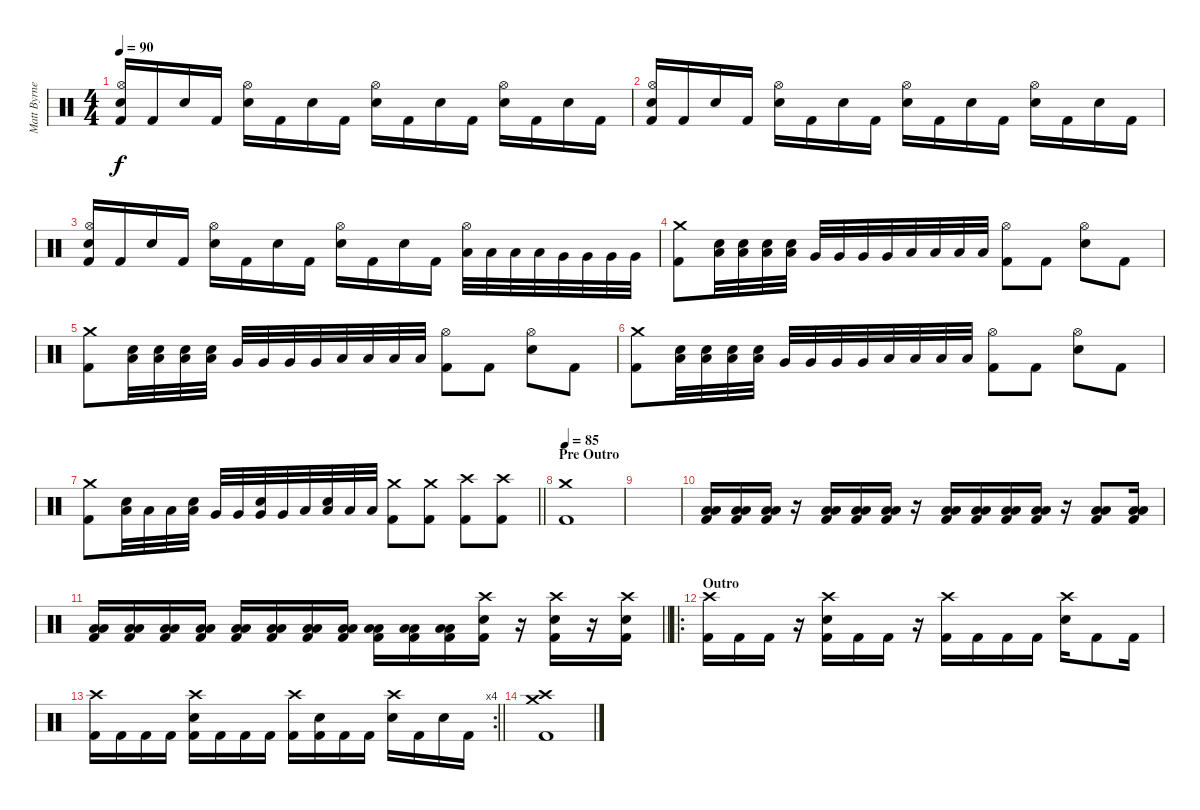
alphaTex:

\track ("Matt Byrne" "Matt Byrne") {instrument percussion}
\staff {score}
\articulation defaults
\ts (4 4)
\tempo 90
\clef neutral
\ks c
("Snare (hit) 2" "Hi-Hat (open)" "Kick (hit) 2").16{dy f} "Kick (hit) 2".16 "Snare (hit) 2".16 "Kick (hit) 2".16 ("Hi-Hat (open)" "Snare (hit) 2").16 "Kick (hit) 2".16 "Snare (hit) 2".16 "Kick (hit) 2".16 ("Hi-Hat (open)" "Snare (hit) 2").16 "Kick (hit) 2".16 "Snare (hit) 2".16 "Kick (hit) 2".16 ("Hi-Hat (open)" "Snare (hit) 2").16 "Kick (hit) 2".16 "Snare (hit) 2".16 "Kick (hit) 2".16 |
("Snare (hit) 2" "Hi-Hat (open)" "Kick (hit) 2").16 "Kick (hit) 2".16 "Snare (hit) 2".16 "Kick (hit) 2".16 ("Hi-Hat (open)" "Snare (hit) 2").16 "Kick (hit) 2".16 "Snare (hit) 2".16 "Kick (hit) 2".16 ("Hi-Hat (open)" "Snare (hit) 2").16 "Kick (hit) 2".16 "Snare (hit) 2".16 "Kick (hit) 2".16 ("Hi-Hat (open)" "Snare (hit) 2").16 "Kick (hit) 2".16 "Snare (hit) 2".16 "Kick (hit) 2".16 |
("Snare (hit) 2" "Hi-Hat (open)" "Kick (hit) 2").16 "Kick (hit) 2".16 "Snare (hit) 2".16 "Kick (hit) 2".16 ("Hi-Hat (open)" "Snare (hit) 2").16 "Kick (hit) 2".16 "Snare (hit) 2".16 "Kick (hit) 2".16 ("Hi-Hat (open)" "Snare (hit) 2").16 "Kick (hit) 2".16 "Snare (hit) 2".16 "Kick (hit) 2".16 ("Hi-Hat (open)" "Low Tom (hit)").32 "Low Tom (hit)".32 "Low Tom (hit)".32 "Low Tom (hit)".32 "Very Low Tom (hit)".32 "Very Low Tom (hit)".32 "Very Low Tom (hit)".32 "Very Low Tom (hit)".32 |
("Crash medium (hit)" "Kick (hit) 2").8 ("Snare (hit) 2" "Low Tom (hit)").32 ("Snare (hit) 2" "Low Tom (hit)").32 ("Snare (hit) 2" "Low Tom (hit)").32 ("Snare (hit) 2" "Low Tom (hit)").32 "Very Low Tom (hit)".32 "Very Low Tom (hit)".32 "Very Low Tom (hit)".32 "Very Low Tom (hit)".32 "Low Floor Tom (hit)".32 "Low Floor Tom (hit)".32 "Low Floor Tom (hit)".32 "Low Floor Tom (hit)".32 ("Hi-Hat (open)" "Kick (hit) 2").8 "Kick (hit) 2".8 ("Hi-Hat (open)" "Snare (hit) 2").8 "Kick (hit) 2".8 |
("Crash medium (hit)" "Kick (hit) 2").8 ("Snare (hit) 2" "Low Tom (hit)").32 ("Snare (hit) 2" "Low Tom (hit)").32 ("Snare (hit) 2" "Low Tom (hit)").32 ("Snare (hit) 2" "Low Tom (hit)").32 "Very Low Tom (hit)".32 "Very Low Tom (hit)".32 "Very Low Tom (hit)".32 "Very Low Tom (hit)".32 "Low Floor Tom (hit)".32 "Low Floor Tom (hit)".32 "Low Floor Tom (hit)".32 "Low Floor Tom (hit)".32 ("Hi-Hat (open)" "Kick (hit) 2").8 "Kick (hit) 2".8 ("Hi-Hat (open)" "Snare (hit) 2").8 "Kick (hit) 2".8 |
("Crash medium (hit)" "Kick (hit) 2").8 ("Snare (hit) 2" "Low Tom (hit)").32 ("Snare (hit) 2" "Low Tom (hit)").32 ("Snare (hit) 2" "Low Tom (hit)").32 ("Snare (hit) 2" "Low Tom (hit)").32 "Very Low Tom (hit)".32 "Very Low Tom (hit)".32 "Very Low Tom (hit)".32 "Very Low Tom (hit)".32 "Low Floor Tom (hit)".32 "Low Floor Tom (hit)".32 "Low Floor Tom (hit)".32 "Low Floor Tom (hit)".32 ("Hi-Hat (open)" "Kick (hit) 2").8 "Kick (hit) 2".8 ("Hi-Hat (open)" "Snare (hit) 2").8 "Kick (hit) 2".8 |
\barLineRight lightlight
("Crash medium (hit)" "Kick (hit) 2").8 ("Snare (hit) 2" "Low Tom (hit)").32 "Low Tom (hit)".32 "Low Tom (hit)".32 ("Snare (hit) 2" "Low Tom (hit)").32 "Very Low Tom (hit)".32 "Very Low Tom (hit)".32 ("Snare (hit) 2" "Very Low Tom (hit)").32 "Very Low Tom (hit)".32 "Low Floor Tom (hit)".32 ("Snare (hit) 2" "Low Floor Tom (hit)").32 "Low Floor Tom (hit)".32 "Low Floor Tom (hit)".32 ("Crash medium (hit)" "Kick (hit) 2").8 ("Crash medium (hit)" "Kick (hit) 2").8 ("Crash high (hit)" "Kick (hit) 2").8 ("Crash high (hit)" "Kick (hit) 2").8 |
\section ("" "Pre Outro")
\tempo 85
("Crash medium (hit)" "Kick (hit) 2").1 |
|
("Low Tom (hit)" "Low Floor Tom (hit)" "Kick (hit) 2").16 ("Low Tom (hit)" "Low Floor Tom (hit)" "Kick (hit) 2").16 ("Low Tom (hit)" "Low Floor Tom (hit)" "Kick (hit) 2").16 r.16 ("Low Tom (hit)" "Low Floor Tom (hit)" "Kick (hit) 2").16 ("Low Tom (hit)" "Low Floor Tom (hit)" "Kick (hit) 2").16 ("Low Tom (hit)" "Low Floor Tom (hit)" "Kick (hit) 2").16 r.16 ("Low Tom (hit)" "Low Floor Tom (hit)" "Kick (hit) 2").16 ("Low Tom (hit)" "Low Floor Tom (hit)" "Kick (hit) 2").16 ("Low Tom (hit)" "Low Floor Tom (hit)" "Kick (hit) 2").16 ("Low Tom (hit)" "Low Floor Tom (hit)" "Kick (hit) 2").16 r.16 ("Low Tom (hit)" "Low Floor Tom (hit)" "Kick (hit) 2").8 ("Low Tom (hit)" "Low Floor Tom (hit)" "Kick (hit) 2").16 |
\barLineRight lightlight
("Low Floor Tom (hit)" "Low Tom (hit)" "Kick (hit) 2").16 ("Low Floor Tom (hit)" "Low Tom (hit)" "Kick (hit) 2").16 ("Low Floor Tom (hit)" "Low Tom (hit)" "Kick (hit) 2").16 ("Low Floor Tom (hit)" "Low Tom (hit)" "Kick (hit) 2").16 ("Low Floor Tom (hit)" "Low Tom (hit)" "Kick (hit) 2").16 ("Low Floor Tom (hit)" "Low Tom (hit)" "Kick (hit) 2").16 ("Low Floor Tom (hit)" "Low Tom (hit)" "Kick (hit) 2").16 ("Low Floor Tom (hit)" "Low Tom (hit)" "Kick (hit) 2").16 ("Low Floor Tom (hit)" "Low Tom (hit)" "Kick (hit) 2").16 ("Low Floor Tom (hit)" "Low Tom (hit)" "Kick (hit) 2").16 ("Low Floor Tom (hit)" "Low Tom (hit)" "Kick (hit) 2").16 ("Crash high (hit)" "Snare (hit) 2" "Kick (hit) 2").16 r.16 ("Crash high (hit)" "Snare (hit) 2" "Kick (hit) 2").16 r.16 ("Crash high (hit)" "Snare (hit) 2" "Kick (hit) 2").16 |
\ro
\section ("" "Outro")
("Crash high (hit)" "Kick (hit) 2").16 "Kick (hit) 2".16 "Kick (hit) 2".16 r.16 ("Snare (hit) 2" "Crash high (hit)" "Kick (hit) 2").16 "Kick (hit) 2".16 "Kick (hit) 2".16 r.16 ("Crash high (hit)" "Kick (hit) 2").16 "Kick (hit) 2".16 "Kick (hit) 2".16 "Kick (hit) 2".16 ("Snare (hit) 2" "Crash high (hit)").16 "Kick (hit) 2".8 "Kick (hit) 2".16 |
\rc 4
\barLineRight lightlight
("Crash high (hit)" "Kick (hit) 2").16 "Kick (hit) 2".16 "Kick (hit) 2".16 "Kick (hit) 2".16 ("Snare (hit) 2" "Crash high (hit)" "Kick (hit) 2").16 "Kick (hit) 2".16 "Kick (hit) 2".16 "Kick (hit) 2".16 ("Crash high (hit)" "Kick (hit) 2").16 ("Snare (hit) 2" "Kick (hit) 2").16 "Kick (hit) 2".16 "Kick (hit) 2".16 ("Crash high (hit)" "Snare (hit) 2").16 "Kick (hit) 2".16 "Snare (hit) 2".16 "Kick (hit) 2".16 |
("Crash medium (hit)" "Crash high (hit)" "Kick (hit) 2").1
